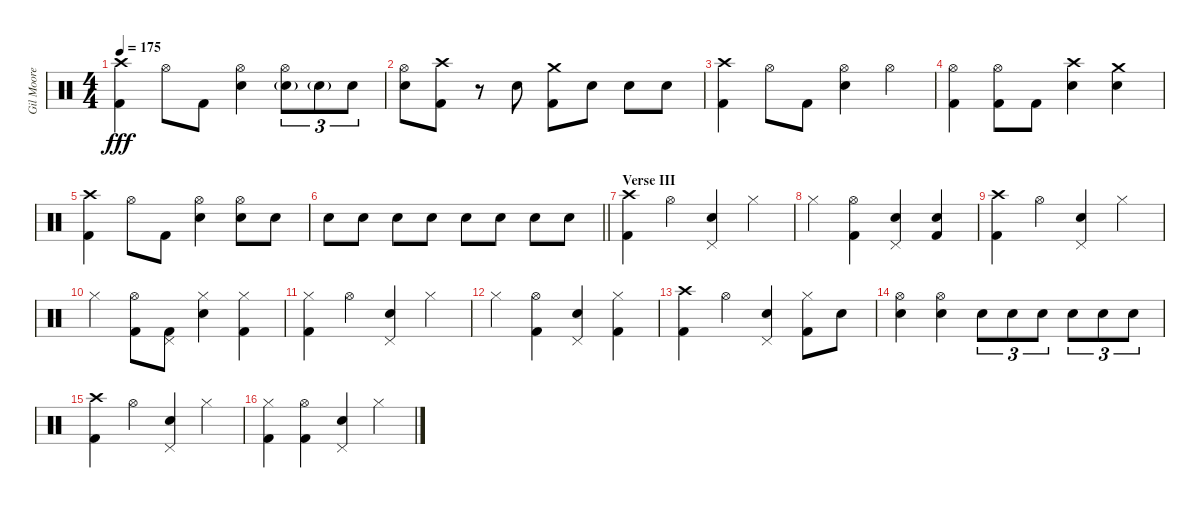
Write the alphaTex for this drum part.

\track ("Gil Moore" "Gil Moore") {instrument percussion}
\staff {score}
\articulation defaults
\ts (4 4)
\tempo 175
\clef neutral
\ks c
("Crash high (hit)" "Kick (hit) 2").4{dy fff} "Hi-Hat (open)".8 "Kick (hit) 2".8 ("Hi-Hat (open)" "Snare (hit) 2").4 ("Hi-Hat (open)" "Snare (hit) 2"{g}).8{tu (3 2)} "Snare (hit) 2"{g}.8{tu (3 2)} "Snare (hit) 2".8{tu (3 2)} |
("Hi-Hat (open)" "Snare (hit) 2").8 ("Crash high (hit)" "Kick (hit) 2").8 r.8 "Snare (hit) 2".8 ("Crash medium (hit)" "Kick (hit) 2").8 "Snare (hit) 2".8 "Snare (hit) 2".8 "Snare (hit) 2".8 |
("Crash high (hit)" "Kick (hit) 2").4 "Hi-Hat (open)".8 "Kick (hit) 2".8 ("Hi-Hat (open)" "Snare (hit) 2").4 "Hi-Hat (open)".4 |
("Hi-Hat (open)" "Kick (hit) 2").4 ("Hi-Hat (open)" "Kick (hit) 2").8 "Kick (hit) 2".8 ("Crash high (hit)" "Snare (hit) 2").4 ("Crash medium (hit)" "Snare (hit) 2").4 |
("Crash high (hit)" "Kick (hit) 2").4 "Hi-Hat (open)".8 "Kick (hit) 2".8 ("Hi-Hat (open)" "Snare (hit) 2").4 ("Hi-Hat (open)" "Snare (hit) 2").8 "Snare (hit) 2".8 |
\barLineRight lightlight "Snare (hit) 2".8 "Snare (hit) 2".8 "Snare (hit) 2".8 "Snare (hit) 2".8 "Snare (hit) 2".8 "Snare (hit) 2".8 "Snare (hit) 2".8 "Snare (hit) 2".8
|
\section ("" "Verse III")
("Crash high (hit)" "Kick (hit) 2").4 "Hi-Hat (open)".4 ("Pedal Hi-Hat (hit)" "Snare (hit) 2").4 "Hi-Hat (closed)".4 |
"Hi-Hat (closed)".4 ("Hi-Hat (open)" "Kick (hit) 2").4 ("Pedal Hi-Hat (hit)" "Snare (hit) 2").4 ("Electric Snare (hit)" "Kick (hit) 2").4 |
("Crash high (hit)" "Kick (hit) 2").4 "Hi-Hat (open)".4 ("Pedal Hi-Hat (hit)" "Snare (hit) 2").4 "Hi-Hat (closed)".4 |
"Hi-Hat (closed)".4 ("Hi-Hat (open)" "Kick (hit) 2").8 ("Pedal Hi-Hat (hit)" "Kick (hit) 2").8 ("Hi-Hat (closed)" "Snare (hit) 2").4 ("Hi-Hat (closed)" "Kick (hit) 2").4 |
("Hi-Hat (closed)" "Kick (hit) 2").4 "Hi-Hat (open)".4 ("Pedal Hi-Hat (hit)" "Snare (hit) 2").4 "Hi-Hat (closed)".4 |
"Hi-Hat (closed)".4 ("Hi-Hat (open)" "Kick (hit) 2").4 ("Pedal Hi-Hat (hit)" "Snare (hit) 2").4 ("Hi-Hat (closed)" "Kick (hit) 2").4 |
("Crash high (hit)" "Kick (hit) 2").4 "Hi-Hat (open)".4 ("Pedal Hi-Hat (hit)" "Snare (hit) 2").4 ("Hi-Hat (closed)" "Kick (hit) 2").8 "Snare (hit) 2".8 |
("Hi-Hat (open)" "Snare (hit) 2").4 ("Hi-Hat (open)" "Snare (hit) 2").4 "Snare (hit) 2".8{tu (3 2)} "Snare (hit) 2".8{tu (3 2)} "Snare (hit) 2".8{tu (3 2)} "Snare (hit) 2".8{tu (3 2)} "Snare (hit) 2".8{tu (3 2)} "Snare (hit) 2".8{tu (3 2)} |
("Crash high (hit)" "Kick (hit) 2").4 "Hi-Hat (open)".4 ("Pedal Hi-Hat (hit)" "Snare (hit) 2").4 "Hi-Hat (closed)".4 |
("Hi-Hat (closed)" "Kick (hit) 2").4 ("Hi-Hat (open)" "Kick (hit) 2").4 ("Pedal Hi-Hat (hit)" "Snare (hit) 2").4 "Hi-Hat (closed)".4
